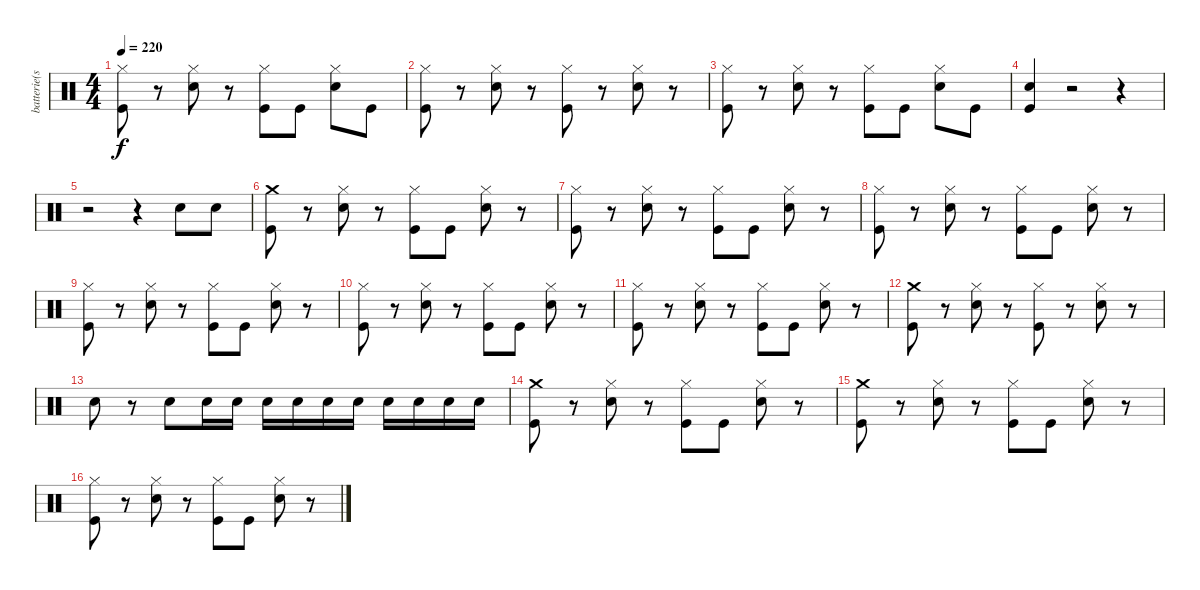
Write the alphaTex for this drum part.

\track ("batterie(scott)" "batterie(s") {instrument percussion}
\staff {score}
\articulation defaults
\ts (4 4)
\tempo 220
\clef neutral
\ks c
("Hi-Hat (closed)" "Kick (hit)").8{dy f} r.8 ("Hi-Hat (closed)" "Snare (hit) 2").8 r.8 ("Hi-Hat (closed)" "Kick (hit)").8 "Kick (hit)".8 ("Hi-Hat (closed)" "Snare (hit) 2").8 "Kick (hit)".8 |
("Hi-Hat (closed)" "Kick (hit)").8 r.8 ("Hi-Hat (closed)" "Snare (hit) 2").8 r.8 ("Hi-Hat (closed)" "Kick (hit)").8 r.8 ("Hi-Hat (closed)" "Snare (hit) 2").8 r.8 |
("Hi-Hat (closed)" "Kick (hit)").8 r.8 ("Hi-Hat (closed)" "Snare (hit) 2").8 r.8 ("Hi-Hat (closed)" "Kick (hit)").8 "Kick (hit)".8 ("Hi-Hat (closed)" "Snare (hit) 2").8 "Kick (hit)".8 |
("Snare (hit) 2" "Kick (hit)").4 r.2 r.4 |
r.2 r.4 "Snare (hit) 2".8 "Snare (hit) 2".8 |
("Crash medium (hit)" "Kick (hit)").8 r.8 ("Hi-Hat (closed)" "Snare (hit) 2").8 r.8 ("Hi-Hat (closed)" "Kick (hit)").8 "Kick (hit)".8 ("Hi-Hat (closed)" "Snare (hit) 2").8 r.8 |
("Hi-Hat (closed)" "Kick (hit)").8 r.8 ("Hi-Hat (closed)" "Snare (hit) 2").8 r.8 ("Hi-Hat (closed)" "Kick (hit)").8 "Kick (hit)".8 ("Hi-Hat (closed)" "Snare (hit) 2").8 r.8 |
("Hi-Hat (closed)" "Kick (hit)").8 r.8 ("Hi-Hat (closed)" "Snare (hit) 2").8 r.8 ("Hi-Hat (closed)" "Kick (hit)").8 "Kick (hit)".8 ("Hi-Hat (closed)" "Snare (hit) 2").8 r.8 |
("Hi-Hat (closed)" "Kick (hit)").8 r.8 ("Hi-Hat (closed)" "Snare (hit) 2").8 r.8 ("Hi-Hat (closed)" "Kick (hit)").8 "Kick (hit)".8 ("Hi-Hat (closed)" "Snare (hit) 2").8 r.8 |
("Hi-Hat (closed)" "Kick (hit)").8 r.8 ("Hi-Hat (closed)" "Snare (hit) 2").8 r.8 ("Hi-Hat (closed)" "Kick (hit)").8 "Kick (hit)".8 ("Hi-Hat (closed)" "Snare (hit) 2").8 r.8 |
("Hi-Hat (closed)" "Kick (hit)").8 r.8 ("Hi-Hat (closed)" "Snare (hit) 2").8 r.8 ("Hi-Hat (closed)" "Kick (hit)").8 "Kick (hit)".8 ("Hi-Hat (closed)" "Snare (hit) 2").8 r.8 |
("Crash medium (hit)" "Kick (hit)").8 r.8 ("Hi-Hat (closed)" "Snare (hit) 2").8 r.8 ("Hi-Hat (closed)" "Kick (hit)").8 r.8 ("Hi-Hat (closed)" "Snare (hit) 2").8 r.8 |
"Snare (hit) 2".8 r.8 "Snare (hit) 2".8 "Snare (hit) 2".16 "Snare (hit) 2".16 "Snare (hit) 2".16 "Snare (hit) 2".16 "Snare (hit) 2".16 "Snare (hit) 2".16 "Snare (hit) 2".16 "Snare (hit) 2".16 "Snare (hit) 2".16 "Snare (hit) 2".16 |
("Crash medium (hit)" "Kick (hit)").8 r.8 ("Hi-Hat (closed)" "Snare (hit) 2").8 r.8 ("Hi-Hat (closed)" "Kick (hit)").8 "Kick (hit)".8 ("Hi-Hat (closed)" "Snare (hit) 2").8 r.8 |
("Crash medium (hit)" "Kick (hit)").8 r.8 ("Hi-Hat (closed)" "Snare (hit) 2").8 r.8 ("Hi-Hat (closed)" "Kick (hit)").8 "Kick (hit)".8 ("Hi-Hat (closed)" "Snare (hit) 2").8 r.8 |
("Hi-Hat (closed)" "Kick (hit)").8 r.8 ("Hi-Hat (closed)" "Snare (hit) 2").8 r.8 ("Hi-Hat (closed)" "Kick (hit)").8 "Kick (hit)".8 ("Hi-Hat (closed)" "Snare (hit) 2").8 r.8
